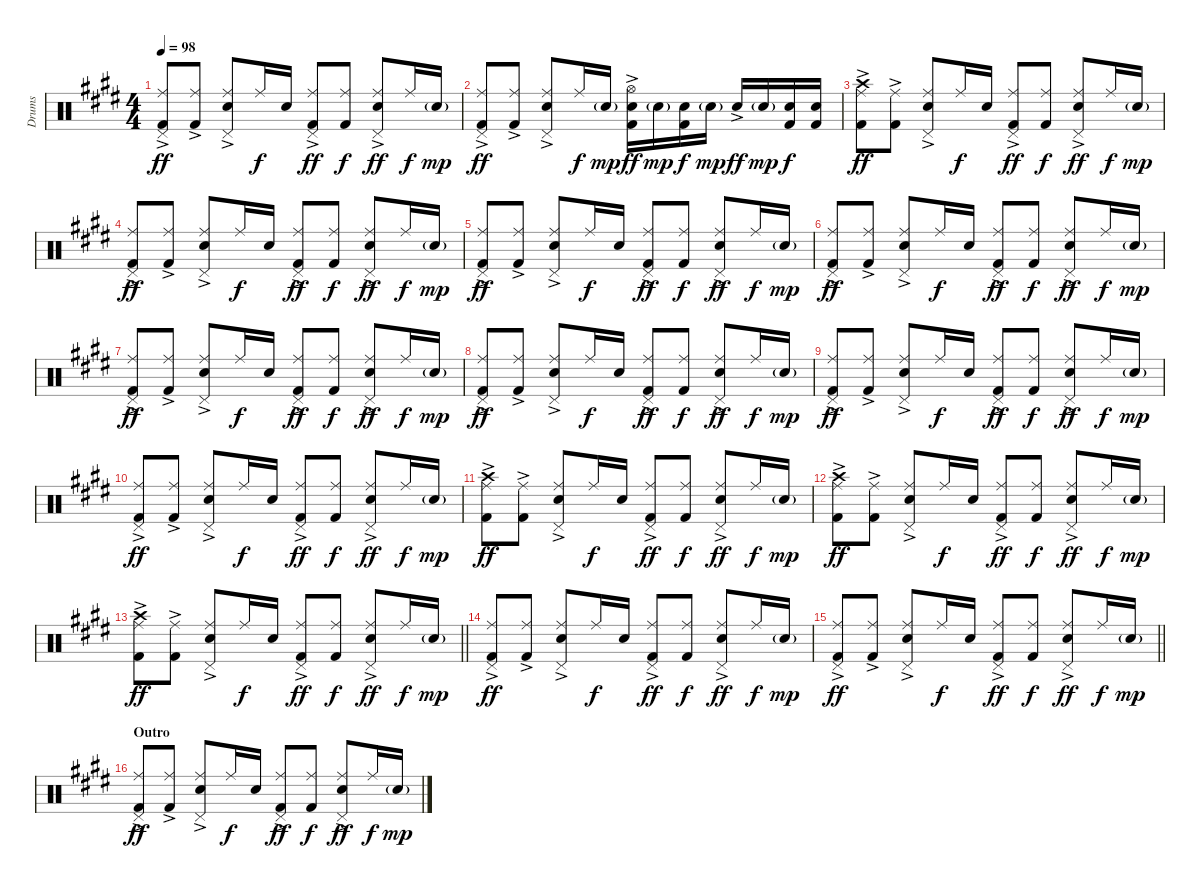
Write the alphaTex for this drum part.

\track ("Drums" "Drums") {instrument percussion}
\staff {score}
\articulation defaults
\ts (4 4)
\tempo 98
\clef neutral
\ks e
("Pedal Hi-Hat (hit)" "Ride (middle)" "Kick (hit) 2"{ac}).8{dy ff} ("Ride (middle)" "Kick (hit) 2"{ac}).8 ("Pedal Hi-Hat (hit)" "Snare (hit) 2"{ac} "Ride (middle)").8 "Ride (middle)".16{dy f} "Snare (hit) 2".16 ("Pedal Hi-Hat (hit)" "Ride (middle)" "Kick (hit) 2"{ac}).8{dy ff} ("Ride (middle)" "Kick (hit) 2").8{dy f} ("Pedal Hi-Hat (hit)" "Snare (hit) 2"{ac} "Ride (middle)").8{dy ff} "Ride (middle)".16{dy f} "Snare (hit) 2"{g}.16{dy mp} |
("Pedal Hi-Hat (hit)" "Ride (middle)" "Kick (hit) 2"{ac}).8{dy ff} ("Ride (middle)" "Kick (hit) 2"{ac}).8 ("Pedal Hi-Hat (hit)" "Snare (hit) 2"{ac} "Ride (middle)").8 "Ride (middle)".16{dy f} "Snare (hit) 2"{g}.16{dy mp} ("Hi-Hat (open)" "Snare (hit) 2" "Kick (hit) 2"{ac}).16{dy ff} "Snare (hit) 2"{g}.16{dy mp} ("Snare (hit) 2" "Kick (hit) 2").16{dy f} "Snare (hit) 2"{g}.16{dy mp} "Snare (hit) 2"{ac}.16{dy ff} "Snare (hit) 2"{g}.16{dy mp} ("Snare (hit) 2" "Kick (hit) 2").16{dy f} ("Snare (hit) 2" "Kick (hit) 2").16 |
("Crash high (hit)" "Ride (middle)" "Kick (hit) 2"{ac}).8{dy ff} ("Ride (middle)" "Kick (hit) 2"{ac}).8 ("Pedal Hi-Hat (hit)" "Snare (hit) 2"{ac} "Ride (middle)").8 "Ride (middle)".16{dy f} "Snare (hit) 2".16 ("Pedal Hi-Hat (hit)" "Ride (middle)" "Kick (hit) 2"{ac}).8{dy ff} ("Ride (middle)" "Kick (hit) 2").8{dy f} ("Pedal Hi-Hat (hit)" "Snare (hit) 2"{ac} "Ride (middle)").8{dy ff} "Ride (middle)".16{dy f} "Snare (hit) 2"{g}.16{dy mp} |
("Pedal Hi-Hat (hit)" "Ride (middle)" "Kick (hit) 2"{ac}).8{dy ff} ("Ride (middle)" "Kick (hit) 2"{ac}).8 ("Pedal Hi-Hat (hit)" "Snare (hit) 2"{ac} "Ride (middle)").8 "Ride (middle)".16{dy f} "Snare (hit) 2".16 ("Pedal Hi-Hat (hit)" "Ride (middle)" "Kick (hit) 2"{ac}).8{dy ff} ("Ride (middle)" "Kick (hit) 2").8{dy f} ("Pedal Hi-Hat (hit)" "Snare (hit) 2"{ac} "Ride (middle)").8{dy ff} "Ride (middle)".16{dy f} "Snare (hit) 2"{g}.16{dy mp} |
("Pedal Hi-Hat (hit)" "Ride (middle)" "Kick (hit) 2"{ac}).8{dy ff} ("Ride (middle)" "Kick (hit) 2"{ac}).8 ("Pedal Hi-Hat (hit)" "Snare (hit) 2"{ac} "Ride (middle)").8 "Ride (middle)".16{dy f} "Snare (hit) 2".16 ("Pedal Hi-Hat (hit)" "Ride (middle)" "Kick (hit) 2"{ac}).8{dy ff} ("Ride (middle)" "Kick (hit) 2").8{dy f} ("Pedal Hi-Hat (hit)" "Snare (hit) 2"{ac} "Ride (middle)").8{dy ff} "Ride (middle)".16{dy f} "Snare (hit) 2"{g}.16{dy mp} |
("Pedal Hi-Hat (hit)" "Ride (middle)" "Kick (hit) 2"{ac}).8{dy ff} ("Ride (middle)" "Kick (hit) 2"{ac}).8 ("Pedal Hi-Hat (hit)" "Snare (hit) 2"{ac} "Ride (middle)").8 "Ride (middle)".16{dy f} "Snare (hit) 2".16 ("Pedal Hi-Hat (hit)" "Ride (middle)" "Kick (hit) 2"{ac}).8{dy ff} ("Ride (middle)" "Kick (hit) 2").8{dy f} ("Pedal Hi-Hat (hit)" "Snare (hit) 2"{ac} "Ride (middle)").8{dy ff} "Ride (middle)".16{dy f} "Snare (hit) 2"{g}.16{dy mp} |
("Pedal Hi-Hat (hit)" "Ride (middle)" "Kick (hit) 2"{ac}).8{dy ff} ("Ride (middle)" "Kick (hit) 2"{ac}).8 ("Pedal Hi-Hat (hit)" "Snare (hit) 2"{ac} "Ride (middle)").8 "Ride (middle)".16{dy f} "Snare (hit) 2".16 ("Pedal Hi-Hat (hit)" "Ride (middle)" "Kick (hit) 2"{ac}).8{dy ff} ("Ride (middle)" "Kick (hit) 2").8{dy f} ("Pedal Hi-Hat (hit)" "Snare (hit) 2"{ac} "Ride (middle)").8{dy ff} "Ride (middle)".16{dy f} "Snare (hit) 2"{g}.16{dy mp} |
("Pedal Hi-Hat (hit)" "Ride (middle)" "Kick (hit) 2"{ac}).8{dy ff} ("Ride (middle)" "Kick (hit) 2"{ac}).8 ("Pedal Hi-Hat (hit)" "Snare (hit) 2"{ac} "Ride (middle)").8 "Ride (middle)".16{dy f} "Snare (hit) 2".16 ("Pedal Hi-Hat (hit)" "Ride (middle)" "Kick (hit) 2"{ac}).8{dy ff} ("Ride (middle)" "Kick (hit) 2").8{dy f} ("Pedal Hi-Hat (hit)" "Snare (hit) 2"{ac} "Ride (middle)").8{dy ff} "Ride (middle)".16{dy f} "Snare (hit) 2"{g}.16{dy mp} |
("Pedal Hi-Hat (hit)" "Ride (middle)" "Kick (hit) 2"{ac}).8{dy ff} ("Ride (middle)" "Kick (hit) 2"{ac}).8 ("Pedal Hi-Hat (hit)" "Snare (hit) 2"{ac} "Ride (middle)").8 "Ride (middle)".16{dy f} "Snare (hit) 2".16 ("Pedal Hi-Hat (hit)" "Ride (middle)" "Kick (hit) 2"{ac}).8{dy ff} ("Ride (middle)" "Kick (hit) 2").8{dy f} ("Pedal Hi-Hat (hit)" "Snare (hit) 2"{ac} "Ride (middle)").8{dy ff} "Ride (middle)".16{dy f} "Snare (hit) 2"{g}.16{dy mp} |
("Pedal Hi-Hat (hit)" "Ride (middle)" "Kick (hit) 2"{ac}).8{dy ff} ("Ride (middle)" "Kick (hit) 2"{ac}).8 ("Pedal Hi-Hat (hit)" "Snare (hit) 2"{ac} "Ride (middle)").8 "Ride (middle)".16{dy f} "Snare (hit) 2".16 ("Pedal Hi-Hat (hit)" "Ride (middle)" "Kick (hit) 2"{ac}).8{dy ff} ("Ride (middle)" "Kick (hit) 2").8{dy f} ("Pedal Hi-Hat (hit)" "Snare (hit) 2"{ac} "Ride (middle)").8{dy ff} "Ride (middle)".16{dy f} "Snare (hit) 2"{g}.16{dy mp} |
("Crash high (hit)" "Ride (middle)" "Kick (hit) 2"{ac}).8{dy ff} ("Ride (middle)" "Kick (hit) 2"{ac}).8 ("Pedal Hi-Hat (hit)" "Snare (hit) 2"{ac} "Ride (middle)").8 "Ride (middle)".16{dy f} "Snare (hit) 2".16 ("Pedal Hi-Hat (hit)" "Ride (middle)" "Kick (hit) 2"{ac}).8{dy ff} ("Ride (middle)" "Kick (hit) 2").8{dy f} ("Pedal Hi-Hat (hit)" "Snare (hit) 2"{ac} "Ride (middle)").8{dy ff} "Ride (middle)".16{dy f} "Snare (hit) 2"{g}.16{dy mp} |
("Crash high (hit)" "Ride (middle)" "Kick (hit) 2"{ac}).8{dy ff} ("Ride (middle)" "Kick (hit) 2"{ac}).8 ("Pedal Hi-Hat (hit)" "Snare (hit) 2"{ac} "Ride (middle)").8 "Ride (middle)".16{dy f} "Snare (hit) 2".16 ("Pedal Hi-Hat (hit)" "Ride (middle)" "Kick (hit) 2"{ac}).8{dy ff} ("Ride (middle)" "Kick (hit) 2").8{dy f} ("Pedal Hi-Hat (hit)" "Snare (hit) 2"{ac} "Ride (middle)").8{dy ff} "Ride (middle)".16{dy f} "Snare (hit) 2"{g}.16{dy mp} |
\barLineRight lightlight
("Crash high (hit)" "Ride (middle)" "Kick (hit) 2"{ac}).8{dy ff} ("Ride (middle)" "Kick (hit) 2"{ac}).8 ("Pedal Hi-Hat (hit)" "Snare (hit) 2"{ac} "Ride (middle)").8 "Ride (middle)".16{dy f} "Snare (hit) 2".16 ("Pedal Hi-Hat (hit)" "Ride (middle)" "Kick (hit) 2"{ac}).8{dy ff} ("Ride (middle)" "Kick (hit) 2").8{dy f} ("Pedal Hi-Hat (hit)" "Snare (hit) 2"{ac} "Ride (middle)").8{dy ff} "Ride (middle)".16{dy f} "Snare (hit) 2"{g}.16{dy mp} |
("Pedal Hi-Hat (hit)" "Ride (middle)" "Kick (hit) 2"{ac}).8{dy ff} ("Ride (middle)" "Kick (hit) 2"{ac}).8 ("Pedal Hi-Hat (hit)" "Snare (hit) 2"{ac} "Ride (middle)").8 "Ride (middle)".16{dy f} "Snare (hit) 2".16 ("Pedal Hi-Hat (hit)" "Ride (middle)" "Kick (hit) 2"{ac}).8{dy ff} ("Ride (middle)" "Kick (hit) 2").8{dy f} ("Pedal Hi-Hat (hit)" "Snare (hit) 2"{ac} "Ride (middle)").8{dy ff} "Ride (middle)".16{dy f} "Snare (hit) 2"{g}.16{dy mp} |
\barLineRight lightlight
("Pedal Hi-Hat (hit)" "Ride (middle)" "Kick (hit) 2"{ac}).8{dy ff} ("Ride (middle)" "Kick (hit) 2"{ac}).8 ("Pedal Hi-Hat (hit)" "Snare (hit) 2"{ac} "Ride (middle)").8 "Ride (middle)".16{dy f} "Snare (hit) 2".16 ("Pedal Hi-Hat (hit)" "Ride (middle)" "Kick (hit) 2"{ac}).8{dy ff} ("Ride (middle)" "Kick (hit) 2").8{dy f} ("Pedal Hi-Hat (hit)" "Snare (hit) 2"{ac} "Ride (middle)").8{dy ff} "Ride (middle)".16{dy f} "Snare (hit) 2"{g}.16{dy mp} |
\section ("" "Outro")
("Pedal Hi-Hat (hit)" "Ride (middle)" "Kick (hit) 2"{ac}).8{dy ff} ("Ride (middle)" "Kick (hit) 2"{ac}).8 ("Pedal Hi-Hat (hit)" "Snare (hit) 2"{ac} "Ride (middle)").8 "Ride (middle)".16{dy f} "Snare (hit) 2".16 ("Pedal Hi-Hat (hit)" "Ride (middle)" "Kick (hit) 2"{ac}).8{dy ff} ("Ride (middle)" "Kick (hit) 2").8{dy f} ("Pedal Hi-Hat (hit)" "Snare (hit) 2"{ac} "Ride (middle)").8{dy ff} "Ride (middle)".16{dy f} "Snare (hit) 2"{g}.16{dy mp}
